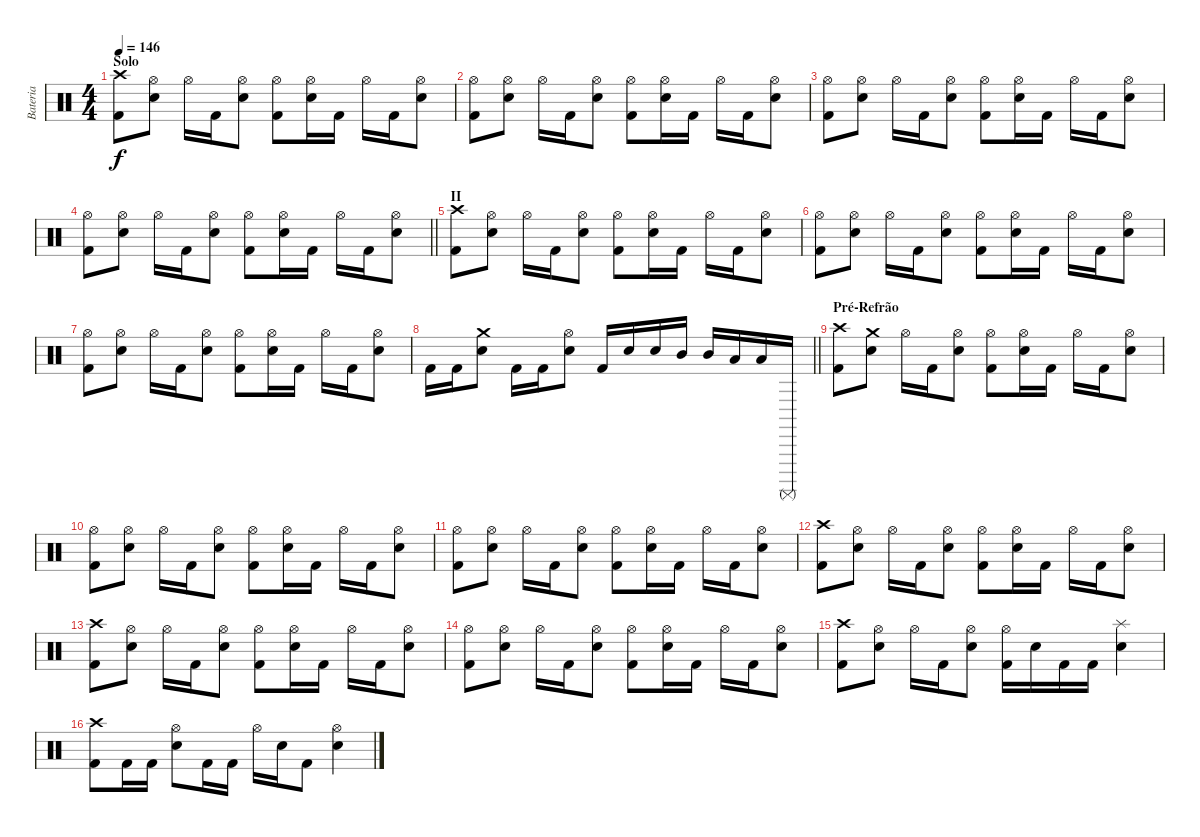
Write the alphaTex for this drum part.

\track ("Bateria" "Bateria") {instrument percussion}
\staff {score}
\articulation defaults
\ts (4 4)
\section ("" "Solo")
\tempo 146
\clef neutral
\ks c
("Kick (hit) 2" "Crash high (hit)").8{dy f} ("Electric Snare (hit)" "Hi-Hat (open)").8 "Hi-Hat (open)".16 "Kick (hit) 2".16 ("Electric Snare (hit)" "Hi-Hat (open)").8 ("Kick (hit) 2" "Hi-Hat (open)").8 ("Electric Snare (hit)" "Hi-Hat (open)").16 "Kick (hit) 2".16 "Hi-Hat (open)".16 "Kick (hit) 2".16 ("Electric Snare (hit)" "Hi-Hat (open)").8 |
("Kick (hit) 2" "Hi-Hat (open)").8 ("Electric Snare (hit)" "Hi-Hat (open)").8 "Hi-Hat (open)".16 "Kick (hit) 2".16 ("Electric Snare (hit)" "Hi-Hat (open)").8 ("Kick (hit) 2" "Hi-Hat (open)").8 ("Electric Snare (hit)" "Hi-Hat (open)").16 "Kick (hit) 2".16 "Hi-Hat (open)".16 "Kick (hit) 2".16 ("Electric Snare (hit)" "Hi-Hat (open)").8 |
("Kick (hit) 2" "Hi-Hat (open)").8 ("Electric Snare (hit)" "Hi-Hat (open)").8 "Hi-Hat (open)".16 "Kick (hit) 2".16 ("Electric Snare (hit)" "Hi-Hat (open)").8 ("Kick (hit) 2" "Hi-Hat (open)").8 ("Electric Snare (hit)" "Hi-Hat (open)").16 "Kick (hit) 2".16 "Hi-Hat (open)".16 "Kick (hit) 2".16 ("Electric Snare (hit)" "Hi-Hat (open)").8 |
\barLineRight lightlight
("Kick (hit) 2" "Hi-Hat (open)").8 ("Electric Snare (hit)" "Hi-Hat (open)").8 "Hi-Hat (open)".16 "Kick (hit) 2".16 ("Electric Snare (hit)" "Hi-Hat (open)").8 ("Kick (hit) 2" "Hi-Hat (open)").8 ("Electric Snare (hit)" "Hi-Hat (open)").16 "Kick (hit) 2".16 "Hi-Hat (open)".16 "Kick (hit) 2".16 ("Electric Snare (hit)" "Hi-Hat (open)").8 |
\section ("" "II")
("Kick (hit) 2" "Crash high (hit)").8 ("Electric Snare (hit)" "Hi-Hat (open)").8 "Hi-Hat (open)".16 "Kick (hit) 2".16 ("Electric Snare (hit)" "Hi-Hat (open)").8 ("Kick (hit) 2" "Hi-Hat (open)").8 ("Electric Snare (hit)" "Hi-Hat (open)").16 "Kick (hit) 2".16 "Hi-Hat (open)".16 "Kick (hit) 2".16 ("Electric Snare (hit)" "Hi-Hat (open)").8 |
("Kick (hit) 2" "Hi-Hat (open)").8 ("Electric Snare (hit)" "Hi-Hat (open)").8 "Hi-Hat (open)".16 "Kick (hit) 2".16 ("Electric Snare (hit)" "Hi-Hat (open)").8 ("Kick (hit) 2" "Hi-Hat (open)").8 ("Electric Snare (hit)" "Hi-Hat (open)").16 "Kick (hit) 2".16 "Hi-Hat (open)".16 "Kick (hit) 2".16 ("Electric Snare (hit)" "Hi-Hat (open)").8 |
("Kick (hit) 2" "Hi-Hat (open)").8 ("Electric Snare (hit)" "Hi-Hat (open)").8 "Hi-Hat (open)".16 "Kick (hit) 2".16 ("Electric Snare (hit)" "Hi-Hat (open)").8 ("Kick (hit) 2" "Hi-Hat (open)").8 ("Electric Snare (hit)" "Hi-Hat (open)").16 "Kick (hit) 2".16 "Hi-Hat (open)".16 "Kick (hit) 2".16 ("Electric Snare (hit)" "Hi-Hat (open)").8 |
\barLineRight lightlight "Kick (hit) 2".16 "Kick (hit) 2".16
("Electric Snare (hit)" "Crash medium (hit)").8 "Kick (hit) 2".16 "Kick (hit) 2".16 ("Electric Snare (hit)" "Hi-Hat (open)").8 "Kick (hit) 2".16 "Electric Snare (hit)".16 "Electric Snare (hit)".16 "Mid Tom (hit)".16 "Mid Tom (hit)".16 "Low Tom (hit)".16 "Low Tom (hit)".16 "Surdo (mute)".16 |
\section ("" "Pré-Refrão")
("Kick (hit) 2" "Crash high (hit)").8 ("Electric Snare (hit)" "Crash medium (hit)").8 "Hi-Hat (open)".16 "Kick (hit) 2".16 ("Electric Snare (hit)" "Hi-Hat (open)").8 ("Kick (hit) 2" "Hi-Hat (open)").8 ("Electric Snare (hit)" "Hi-Hat (open)").16 "Kick (hit) 2".16 "Hi-Hat (open)".16 "Kick (hit) 2".16 ("Electric Snare (hit)" "Hi-Hat (open)").8 |
("Kick (hit) 2" "Hi-Hat (open)").8 ("Electric Snare (hit)" "Hi-Hat (open)").8 "Hi-Hat (open)".16 "Kick (hit) 2".16 ("Electric Snare (hit)" "Hi-Hat (open)").8 ("Kick (hit) 2" "Hi-Hat (open)").8 ("Electric Snare (hit)" "Hi-Hat (open)").16 "Kick (hit) 2".16 "Hi-Hat (open)".16 "Kick (hit) 2".16 ("Electric Snare (hit)" "Hi-Hat (open)").8 |
("Kick (hit) 2" "Hi-Hat (open)").8 ("Electric Snare (hit)" "Hi-Hat (open)").8 "Hi-Hat (open)".16 "Kick (hit) 2".16 ("Electric Snare (hit)" "Hi-Hat (open)").8 ("Kick (hit) 2" "Hi-Hat (open)").8 ("Electric Snare (hit)" "Hi-Hat (open)").16 "Kick (hit) 2".16 "Hi-Hat (open)".16 "Kick (hit) 2".16 ("Electric Snare (hit)" "Hi-Hat (open)").8 |
("Kick (hit) 2" "Crash high (hit)").8 ("Electric Snare (hit)" "Hi-Hat (open)").8 "Hi-Hat (open)".16 "Kick (hit) 2".16 ("Electric Snare (hit)" "Hi-Hat (open)").8 ("Kick (hit) 2" "Hi-Hat (open)").8 ("Electric Snare (hit)" "Hi-Hat (open)").16 "Kick (hit) 2".16 "Hi-Hat (open)".16 "Kick (hit) 2".16 ("Electric Snare (hit)" "Hi-Hat (open)").8 |
("Kick (hit) 2" "Crash high (hit)").8 ("Electric Snare (hit)" "Hi-Hat (open)").8 "Hi-Hat (open)".16 "Kick (hit) 2".16 ("Electric Snare (hit)" "Hi-Hat (open)").8 ("Kick (hit) 2" "Hi-Hat (open)").8 ("Electric Snare (hit)" "Hi-Hat (open)").16 "Kick (hit) 2".16 "Hi-Hat (open)".16 "Kick (hit) 2".16 ("Electric Snare (hit)" "Hi-Hat (open)").8 |
("Kick (hit) 2" "Hi-Hat (open)").8 ("Electric Snare (hit)" "Hi-Hat (open)").8 "Hi-Hat (open)".16 "Kick (hit) 2".16 ("Electric Snare (hit)" "Hi-Hat (open)").8 ("Kick (hit) 2" "Hi-Hat (open)").8 ("Electric Snare (hit)" "Hi-Hat (open)").16 "Kick (hit) 2".16 "Hi-Hat (open)".16 "Kick (hit) 2".16 ("Electric Snare (hit)" "Hi-Hat (open)").8 |
("Kick (hit) 2" "Crash high (hit)").8 ("Electric Snare (hit)" "Hi-Hat (open)").8 "Hi-Hat (open)".16 "Kick (hit) 2".16 ("Electric Snare (hit)" "Hi-Hat (open)").8 ("Kick (hit) 2" "Hi-Hat (open)").16 "Electric Snare (hit)".16 "Kick (hit) 2".16 "Kick (hit) 2".16 ("Electric Snare (hit)" "Splash (hit)").4 |
("Kick (hit) 2" "Crash high (hit)").8 "Kick (hit) 2".16 "Kick (hit) 2".16 ("Electric Snare (hit)" "Hi-Hat (open)").8 "Kick (hit) 2".16 "Kick (hit) 2".16 "Hi-Hat (open)".16 "Electric Snare (hit)".16 "Kick (hit) 2".8 ("Electric Snare (hit)" "Hi-Hat (open)").4
